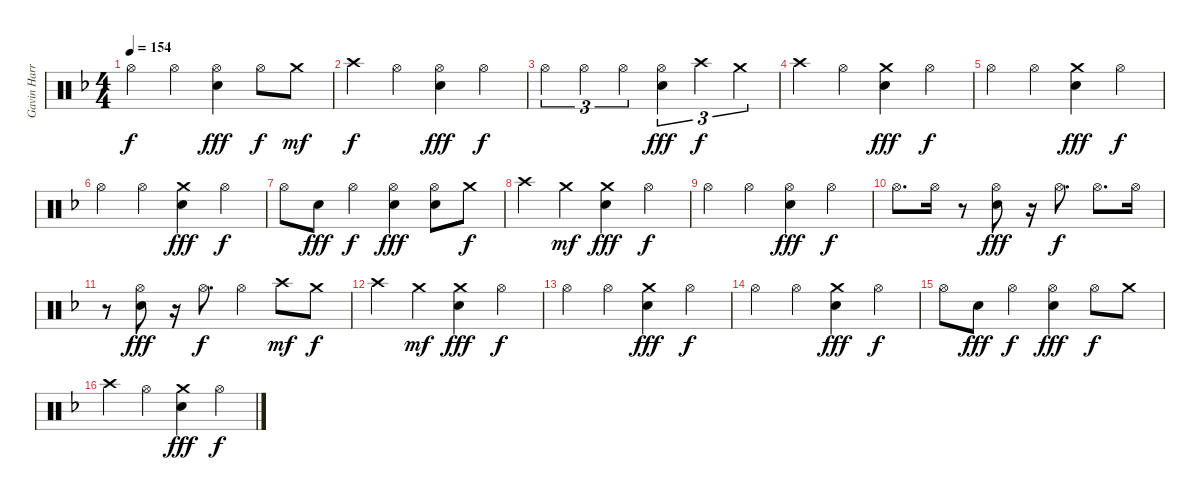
\track ("Gavin Harrison Drums" "Gavin Harr") {instrument percussion}
\staff {score}
\articulation defaults
\ts (4 4)
\tempo 154
\clef neutral
\ks dminor "Hi-Hat (open)".4{dy f} "Hi-Hat (open)".4
("Hi-Hat (open)" "Electric Snare (hit)").4{dy fff} "Hi-Hat (open)".8{dy f} "Crash medium (hit)".8{dy mf} |
"Crash high (hit)".4{dy f} "Hi-Hat (open)".4 ("Hi-Hat (open)" "Electric Snare (hit)").4{dy fff} "Hi-Hat (open)".4{dy f} |
"Hi-Hat (open)".4{tu (3 2)} "Hi-Hat (open)".4{tu (3 2)} "Hi-Hat (open)".4{tu (3 2)} ("Hi-Hat (open)" "Electric Snare (hit)").4{tu (3 2) dy fff} "Crash high (hit)".4{tu (3 2) dy f} "Crash medium (hit)".4{tu (3 2)} |
"Crash high (hit)".4 "Hi-Hat (open)".4 ("Crash medium (hit)" "Electric Snare (hit)").4{dy fff} "Hi-Hat (open)".4{dy f} |
"Hi-Hat (open)".4 "Hi-Hat (open)".4 ("Crash medium (hit)" "Electric Snare (hit)").4{dy fff} "Hi-Hat (open)".4{dy f} |
"Hi-Hat (open)".4 "Hi-Hat (open)".4 ("Crash medium (hit)" "Electric Snare (hit)").4{dy fff} "Hi-Hat (open)".4{dy f} |
"Hi-Hat (open)".8 "Electric Snare (hit)".8{dy fff} "Hi-Hat (open)".4{dy f} ("Hi-Hat (open)" "Electric Snare (hit)").4{dy fff} ("Hi-Hat (open)" "Electric Snare (hit)").8 "Crash medium (hit)".8{dy f} |
"Crash high (hit)".4 "Crash medium (hit)".4{dy mf} ("Crash medium (hit)" "Electric Snare (hit)").4{dy fff} "Hi-Hat (open)".4{dy f} |
"Hi-Hat (open)".4 "Hi-Hat (open)".4 ("Hi-Hat (open)" "Electric Snare (hit)").4{dy fff} "Hi-Hat (open)".4{dy f} |
"Hi-Hat (open)".8{d} "Hi-Hat (open)".16 r.8 ("Hi-Hat (open)" "Electric Snare (hit)").8{dy fff} r.16 "Hi-Hat (open)".8{d dy f} "Hi-Hat (open)".8{d} "Hi-Hat (open)".16 |
r.8 ("Hi-Hat (open)" "Electric Snare (hit)").8{dy fff} r.16 "Hi-Hat (open)".8{d dy f} "Hi-Hat (open)".4 "Crash high (hit)".8{dy mf} "Crash medium (hit)".8{dy f} |
"Crash high (hit)".4 "Crash medium (hit)".4{dy mf} ("Crash medium (hit)" "Electric Snare (hit)").4{dy fff} "Hi-Hat (open)".4{dy f} |
"Hi-Hat (open)".4 "Hi-Hat (open)".4 ("Crash medium (hit)" "Electric Snare (hit)").4{dy fff} "Hi-Hat (open)".4{dy f} |
"Hi-Hat (open)".4 "Hi-Hat (open)".4 ("Crash medium (hit)" "Electric Snare (hit)").4{dy fff} "Hi-Hat (open)".4{dy f} |
"Hi-Hat (open)".8 "Electric Snare (hit)".8{dy fff} "Hi-Hat (open)".4{dy f} ("Hi-Hat (open)" "Electric Snare (hit)").4{dy fff} "Hi-Hat (open)".8{dy f} "Crash medium (hit)".8 |
"Crash high (hit)".4 "Hi-Hat (open)".4 ("Crash medium (hit)" "Electric Snare (hit)").4{dy fff} "Hi-Hat (open)".4{dy f}
